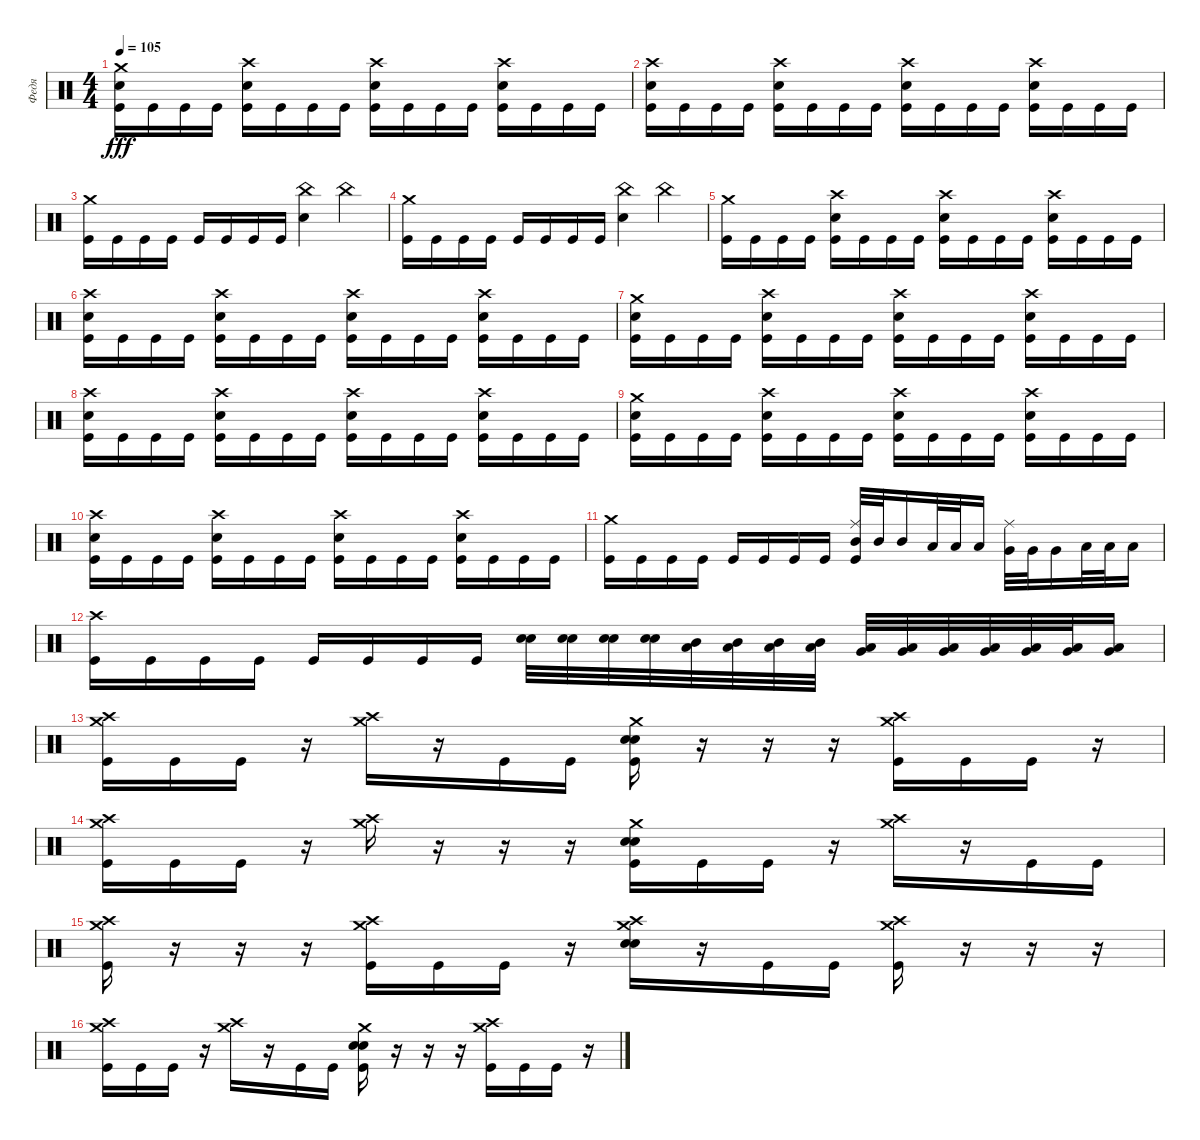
\track ("Федя" "Федя") {instrument percussion}
\staff {score}
\articulation defaults
\ts (4 4)
\tempo 105
\clef neutral
\ks c
("Crash medium (hit)" "Snare (hit) 2" "Kick (hit)").16{dy fff} "Kick (hit)".16 "Kick (hit)".16 "Kick (hit)".16 ("Crash high (hit)" "Snare (hit) 2" "Kick (hit)").16 "Kick (hit)".16 "Kick (hit)".16 "Kick (hit)".16 ("Crash high (hit)" "Snare (hit) 2" "Kick (hit)").16 "Kick (hit)".16 "Kick (hit)".16 "Kick (hit)".16 ("Crash high (hit)" "Snare (hit) 2" "Kick (hit)").16 "Kick (hit)".16 "Kick (hit)".16 "Kick (hit)".16 |
("Crash high (hit)" "Snare (hit) 2" "Kick (hit)").16 "Kick (hit)".16 "Kick (hit)".16 "Kick (hit)".16 ("Crash high (hit)" "Snare (hit) 2" "Kick (hit)").16 "Kick (hit)".16 "Kick (hit)".16 "Kick (hit)".16 ("Crash high (hit)" "Snare (hit) 2" "Kick (hit)").16 "Kick (hit)".16 "Kick (hit)".16 "Kick (hit)".16 ("Crash high (hit)" "Snare (hit) 2" "Kick (hit)").16 "Kick (hit)".16 "Kick (hit)".16 "Kick (hit)".16 |
("Crash medium (hit)" "Kick (hit)").16 "Kick (hit)".16 "Kick (hit)".16 "Kick (hit)".16 "Kick (hit)".16 "Kick (hit)".16 "Kick (hit)".16 "Kick (hit)".16 ("China (hit)" "Snare (hit) 2").4 "China (hit)".4 |
("Crash medium (hit)" "Kick (hit)").16 "Kick (hit)".16 "Kick (hit)".16 "Kick (hit)".16 "Kick (hit)".16 "Kick (hit)".16 "Kick (hit)".16 "Kick (hit)".16 ("China (hit)" "Snare (hit) 2").4 "China (hit)".4 |
("Crash medium (hit)" "Kick (hit)").16 "Kick (hit)".16 "Kick (hit)".16 "Kick (hit)".16 ("Crash high (hit)" "Snare (hit) 2" "Kick (hit)").16 "Kick (hit)".16 "Kick (hit)".16 "Kick (hit)".16 ("Crash high (hit)" "Snare (hit) 2" "Kick (hit)").16 "Kick (hit)".16 "Kick (hit)".16 "Kick (hit)".16 ("Crash high (hit)" "Snare (hit) 2" "Kick (hit)").16 "Kick (hit)".16 "Kick (hit)".16 "Kick (hit)".16 |
("Crash high (hit)" "Snare (hit) 2" "Kick (hit)").16 "Kick (hit)".16 "Kick (hit)".16 "Kick (hit)".16 ("Crash high (hit)" "Snare (hit) 2" "Kick (hit)").16 "Kick (hit)".16 "Kick (hit)".16 "Kick (hit)".16 ("Crash high (hit)" "Snare (hit) 2" "Kick (hit)").16 "Kick (hit)".16 "Kick (hit)".16 "Kick (hit)".16 ("Crash high (hit)" "Snare (hit) 2" "Kick (hit)").16 "Kick (hit)".16 "Kick (hit)".16 "Kick (hit)".16 |
("Crash medium (hit)" "Snare (hit) 2" "Kick (hit)").16 "Kick (hit)".16 "Kick (hit)".16 "Kick (hit)".16 ("Crash high (hit)" "Snare (hit) 2" "Kick (hit)").16 "Kick (hit)".16 "Kick (hit)".16 "Kick (hit)".16 ("Crash high (hit)" "Snare (hit) 2" "Kick (hit)").16 "Kick (hit)".16 "Kick (hit)".16 "Kick (hit)".16 ("Crash high (hit)" "Snare (hit) 2" "Kick (hit)").16 "Kick (hit)".16 "Kick (hit)".16 "Kick (hit)".16 |
("Crash high (hit)" "Snare (hit) 2" "Kick (hit)").16 "Kick (hit)".16 "Kick (hit)".16 "Kick (hit)".16 ("Crash high (hit)" "Snare (hit) 2" "Kick (hit)").16 "Kick (hit)".16 "Kick (hit)".16 "Kick (hit)".16 ("Crash high (hit)" "Snare (hit) 2" "Kick (hit)").16 "Kick (hit)".16 "Kick (hit)".16 "Kick (hit)".16 ("Crash high (hit)" "Snare (hit) 2" "Kick (hit)").16 "Kick (hit)".16 "Kick (hit)".16 "Kick (hit)".16 |
("Crash medium (hit)" "Snare (hit) 2" "Kick (hit)").16 "Kick (hit)".16 "Kick (hit)".16 "Kick (hit)".16 ("Crash high (hit)" "Snare (hit) 2" "Kick (hit)").16 "Kick (hit)".16 "Kick (hit)".16 "Kick (hit)".16 ("Crash high (hit)" "Snare (hit) 2" "Kick (hit)").16 "Kick (hit)".16 "Kick (hit)".16 "Kick (hit)".16 ("Crash high (hit)" "Snare (hit) 2" "Kick (hit)").16 "Kick (hit)".16 "Kick (hit)".16 "Kick (hit)".16 |
("Crash high (hit)" "Snare (hit) 2" "Kick (hit)").16 "Kick (hit)".16 "Kick (hit)".16 "Kick (hit)".16 ("Crash high (hit)" "Snare (hit) 2" "Kick (hit)").16 "Kick (hit)".16 "Kick (hit)".16 "Kick (hit)".16 ("Crash high (hit)" "Snare (hit) 2" "Kick (hit)").16 "Kick (hit)".16 "Kick (hit)".16 "Kick (hit)".16 ("Crash high (hit)" "Snare (hit) 2" "Kick (hit)").16 "Kick (hit)".16 "Kick (hit)".16 "Kick (hit)".16 |
("Crash medium (hit)" "Kick (hit)").16 "Kick (hit)".16 "Kick (hit)".16 "Kick (hit)".16 "Kick (hit)".16 "Kick (hit)".16 "Kick (hit)".16 "Kick (hit)".16 ("Ride (middle)" "Mid Tom (hit)" "Kick (hit)").32 "Mid Tom (hit)".32 "Mid Tom (hit)".16 "Low Tom (hit)".32 "Low Tom (hit)".32 "Low Tom (hit)".16 ("Ride (middle)" "Very Low Tom (hit)").32 "Very Low Tom (hit)".32 "Very Low Tom (hit)".16 "Low Floor Tom (hit)".32 "Low Floor Tom (hit)".32 "Low Floor Tom (hit)".16 |
("Crash high (hit)" "Kick (hit)").16 "Kick (hit)".16 "Kick (hit)".16 "Kick (hit)".16 "Kick (hit)".16 "Kick (hit)".16 "Kick (hit)".16 "Kick (hit)".16 ("Electric Snare (hit)" "Snare (hit) 2").32 ("Electric Snare (hit)" "Snare (hit) 2").32 ("Electric Snare (hit)" "Snare (hit) 2").32 ("Electric Snare (hit)" "Snare (hit) 2").32 ("Mid Tom (hit)" "Low Tom (hit)").32 ("Mid Tom (hit)" "Low Tom (hit)").32 ("Mid Tom (hit)" "Low Tom (hit)").32 ("Mid Tom (hit)" "Low Tom (hit)").32 ("Low Tom (hit)" "Very Low Tom (hit)").32 ("Low Tom (hit)" "Very Low Tom (hit)").32 ("Low Tom (hit)" "Very Low Tom (hit)").32 ("Low Tom (hit)" "Very Low Tom (hit)").32 ("Very Low Tom (hit)" "Low Floor Tom (hit)").32 ("Very Low Tom (hit)" "Low Floor Tom (hit)").32 ("Very Low Tom (hit)" "Low Floor Tom (hit)").16 |
("Crash medium (hit)" "Crash high (hit)" "Kick (hit)").16 "Kick (hit)".16 "Kick (hit)".16 r.16 ("Crash medium (hit)" "Crash high (hit)").16 r.16 "Kick (hit)".16 "Kick (hit)".16 ("Crash medium (hit)" "Electric Snare (hit)" "Snare (hit) 2" "Kick (hit)").16 r.16 r.16 r.16 ("Crash medium (hit)" "Crash high (hit)" "Kick (hit)").16 "Kick (hit)".16 "Kick (hit)".16 r.16 |
("Crash medium (hit)" "Crash high (hit)" "Kick (hit)").16 "Kick (hit)".16 "Kick (hit)".16 r.16 ("Crash medium (hit)" "Crash high (hit)").16 r.16 r.16 r.16 ("Crash medium (hit)" "Electric Snare (hit)" "Snare (hit) 2" "Kick (hit)").16 "Kick (hit)".16 "Kick (hit)".16 r.16 ("Crash medium (hit)" "Crash high (hit)").16 r.16 "Kick (hit)".16 "Kick (hit)".16 |
("Crash medium (hit)" "Crash high (hit)" "Kick (hit)").16 r.16 r.16 r.16 ("Crash medium (hit)" "Crash high (hit)" "Kick (hit)").16 "Kick (hit)".16 "Kick (hit)".16 r.16 ("Crash medium (hit)" "Crash high (hit)" "Electric Snare (hit)" "Snare (hit) 2").16 r.16 "Kick (hit)".16 "Kick (hit)".16 ("Crash medium (hit)" "Crash high (hit)" "Kick (hit)").16 r.16 r.16 r.16 |
("Crash medium (hit)" "Crash high (hit)" "Kick (hit)").16 "Kick (hit)".16 "Kick (hit)".16 r.16 ("Crash medium (hit)" "Crash high (hit)").16 r.16 "Kick (hit)".16 "Kick (hit)".16 ("Crash medium (hit)" "Electric Snare (hit)" "Snare (hit) 2" "Kick (hit)").16 r.16 r.16 r.16 ("Crash medium (hit)" "Crash high (hit)" "Kick (hit)").16 "Kick (hit)".16 "Kick (hit)".16 r.16
